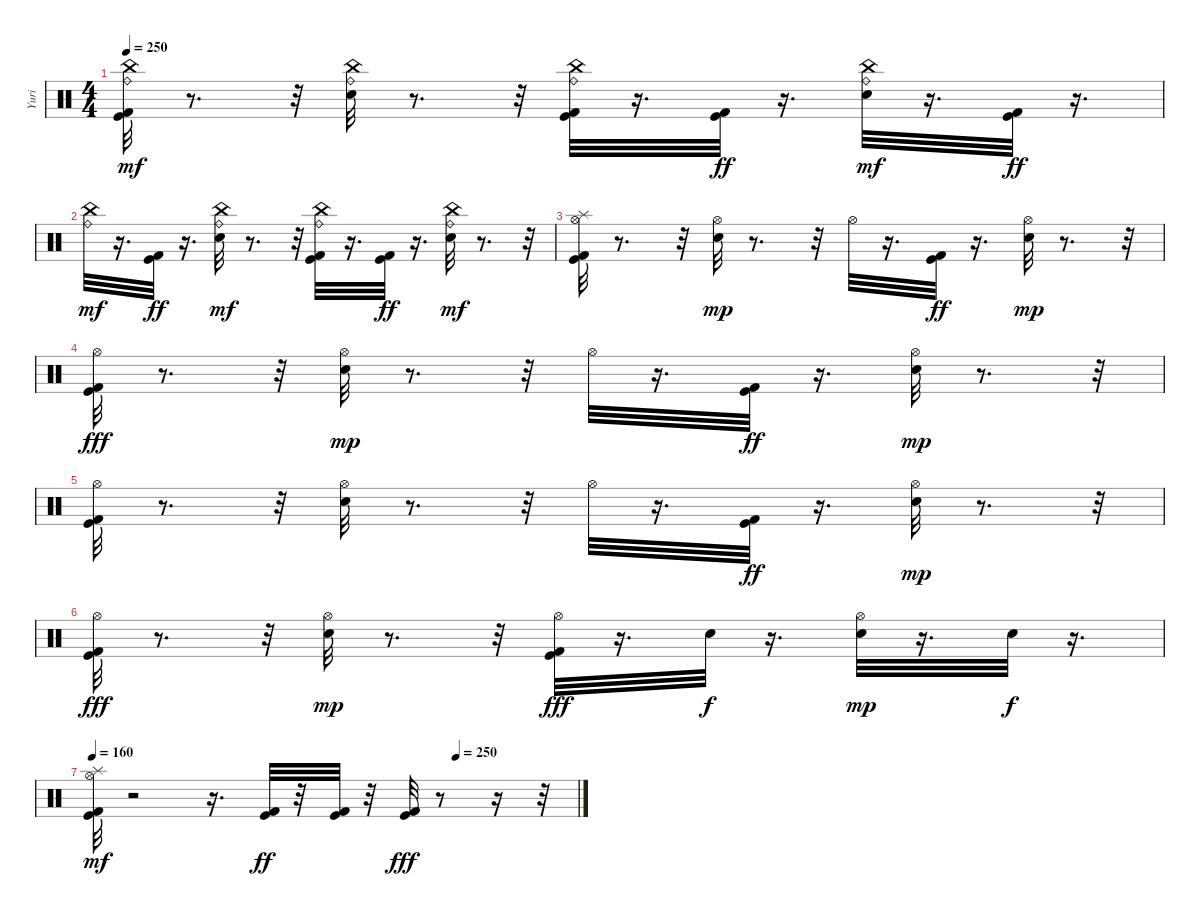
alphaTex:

\track ("Yuri" "Yuri") {instrument percussion}
\staff {score}
\articulation defaults
\ts (4 4)
\tempo 250
\clef neutral
\ks c
("Kick (hit) 2" "Kick (hit)" "Ride (bell)" "China (hit)").32{dy mf} r.8{d} r.32 ("Snare (hit) 2" "Ride (bell)" "China (hit)").32 r.8{d} r.32 ("Kick (hit) 2" "Kick (hit)" "Ride (bell)" "China (hit)").32 r.16{d} ("Kick (hit) 2" "Kick (hit)").32{dy ff} r.16{d} ("Snare (hit) 2" "Ride (bell)" "China (hit)").32{dy mf} r.16{d} ("Kick (hit) 2" "Kick (hit)").32{dy ff} r.16{d} |
("Ride (bell)" "China (hit)").32{dy mf} r.16{d} ("Kick (hit) 2" "Kick (hit)").32{dy ff} r.16{d} ("Snare (hit) 2" "Ride (bell)" "China (hit)").32{dy mf} r.8{d} r.32 ("Kick (hit) 2" "Kick (hit)" "Ride (bell)" "China (hit)").32 r.16{d} ("Kick (hit) 2" "Kick (hit)").32{dy ff} r.16{d} ("Snare (hit) 2" "Ride (bell)" "China (hit)").32{dy mf} r.8{d} r.32 |
("Kick (hit) 2" "Kick (hit)" "Hi-Hat (open)" "Splash (hit)").32 r.8{d} r.32 ("Snare (hit) 2" "Hi-Hat (open)").32{dy mp} r.8{d} r.32 "Hi-Hat (open)".32 r.16{d} ("Kick (hit) 2" "Kick (hit)").32{dy ff} r.16{d} ("Snare (hit) 2" "Hi-Hat (open)").32{dy mp} r.8{d} r.32 |
("Hi-Hat (open)" "Kick (hit) 2" "Kick (hit)").32{dy fff} r.8{d} r.32 ("Snare (hit) 2" "Hi-Hat (open)").32{dy mp} r.8{d} r.32 "Hi-Hat (open)".32 r.16{d} ("Kick (hit) 2" "Kick (hit)").32{dy ff} r.16{d} ("Snare (hit) 2" "Hi-Hat (open)").32{dy mp} r.8{d} r.32 |
("Kick (hit) 2" "Kick (hit)" "Hi-Hat (open)").32 r.8{d} r.32 ("Snare (hit) 2" "Hi-Hat (open)").32 r.8{d} r.32 "Hi-Hat (open)".32 r.16{d} ("Kick (hit) 2" "Kick (hit)").32{dy ff} r.16{d} ("Snare (hit) 2" "Hi-Hat (open)").32{dy mp} r.8{d} r.32 |
("Hi-Hat (open)" "Kick (hit) 2" "Kick (hit)").32{dy fff} r.8{d} r.32 ("Snare (hit) 2" "Hi-Hat (open)").32{dy mp} r.8{d} r.32 ("Hi-Hat (open)" "Kick (hit) 2" "Kick (hit)").32{dy fff} r.16{d} "Snare (hit) 2".32{dy f} r.16{d} ("Snare (hit) 2" "Hi-Hat (open)").32{dy mp} r.16{d} "Snare (hit) 2".32{dy f} r.16{d} |
\tempo 160
\tempo (250 0.75)
("Kick (hit) 2" "Kick (hit)" "Hi-Hat (open)" "Splash (hit)").32{dy mf} r.2 r.16{d} ("Kick (hit) 2" "Kick (hit)").32{dy ff} r.32 ("Kick (hit) 2" "Kick (hit)").32 r.32 ("Kick (hit) 2" "Kick (hit)").32{dy fff} r.8 r.16 r.32
